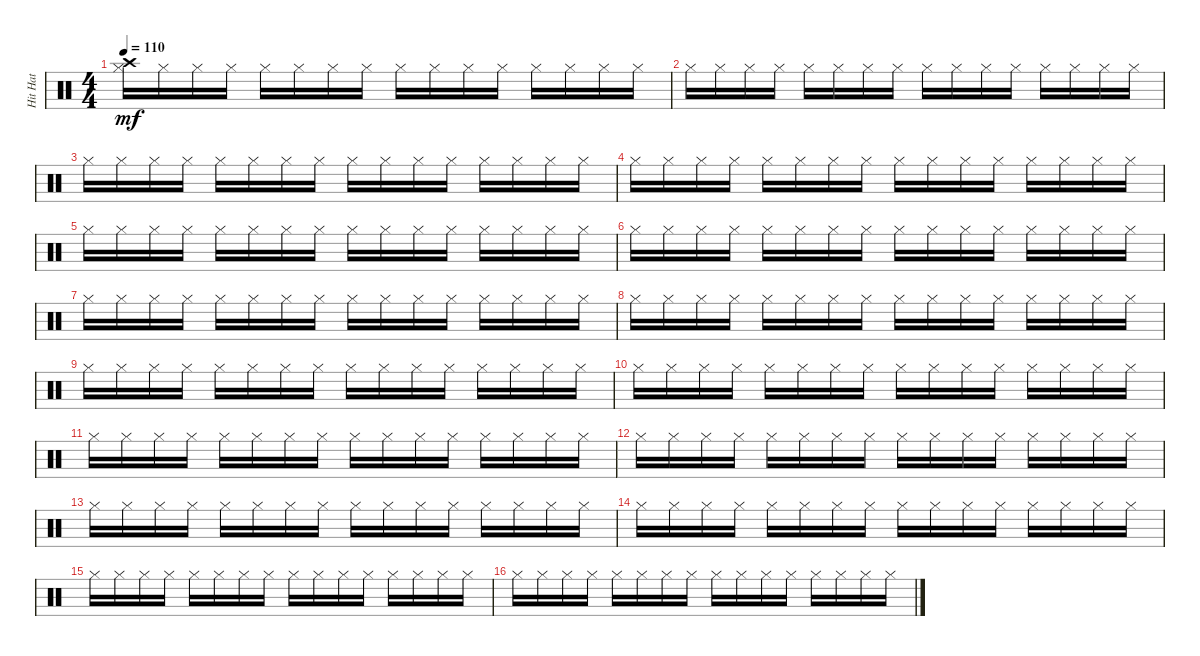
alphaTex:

\track ("Hit Hat" "Hit Hat") {instrument percussion}
\staff {score}
\articulation defaults
\ts (4 4)
\tempo 110
\clef neutral
\ks c
("Hi-Hat (closed)" "Crash high (hit)").16{dy mf} "Hi-Hat (closed)".16 "Hi-Hat (closed)".16 "Hi-Hat (closed)".16 "Hi-Hat (closed)".16 "Hi-Hat (closed)".16 "Hi-Hat (closed)".16 "Hi-Hat (closed)".16 "Hi-Hat (closed)".16 "Hi-Hat (closed)".16 "Hi-Hat (closed)".16 "Hi-Hat (closed)".16 "Hi-Hat (closed)".16 "Hi-Hat (closed)".16 "Hi-Hat (closed)".16 "Hi-Hat (closed)".16 |
"Hi-Hat (closed)".16 "Hi-Hat (closed)".16 "Hi-Hat (closed)".16 "Hi-Hat (closed)".16 "Hi-Hat (closed)".16 "Hi-Hat (closed)".16 "Hi-Hat (closed)".16 "Hi-Hat (closed)".16 "Hi-Hat (closed)".16 "Hi-Hat (closed)".16 "Hi-Hat (closed)".16 "Hi-Hat (closed)".16 "Hi-Hat (closed)".16 "Hi-Hat (closed)".16 "Hi-Hat (closed)".16 "Hi-Hat (closed)".16 |
"Hi-Hat (closed)".16 "Hi-Hat (closed)".16 "Hi-Hat (closed)".16 "Hi-Hat (closed)".16 "Hi-Hat (closed)".16 "Hi-Hat (closed)".16 "Hi-Hat (closed)".16 "Hi-Hat (closed)".16 "Hi-Hat (closed)".16 "Hi-Hat (closed)".16 "Hi-Hat (closed)".16 "Hi-Hat (closed)".16 "Hi-Hat (closed)".16 "Hi-Hat (closed)".16 "Hi-Hat (closed)".16 "Hi-Hat (closed)".16 |
"Hi-Hat (closed)".16 "Hi-Hat (closed)".16 "Hi-Hat (closed)".16 "Hi-Hat (closed)".16 "Hi-Hat (closed)".16 "Hi-Hat (closed)".16 "Hi-Hat (closed)".16 "Hi-Hat (closed)".16 "Hi-Hat (closed)".16 "Hi-Hat (closed)".16 "Hi-Hat (closed)".16 "Hi-Hat (closed)".16 "Hi-Hat (closed)".16 "Hi-Hat (closed)".16 "Hi-Hat (closed)".16 "Hi-Hat (closed)".16 |
"Hi-Hat (closed)".16 "Hi-Hat (closed)".16 "Hi-Hat (closed)".16 "Hi-Hat (closed)".16 "Hi-Hat (closed)".16 "Hi-Hat (closed)".16 "Hi-Hat (closed)".16 "Hi-Hat (closed)".16 "Hi-Hat (closed)".16 "Hi-Hat (closed)".16 "Hi-Hat (closed)".16 "Hi-Hat (closed)".16 "Hi-Hat (closed)".16 "Hi-Hat (closed)".16 "Hi-Hat (closed)".16 "Hi-Hat (closed)".16 |
"Hi-Hat (closed)".16 "Hi-Hat (closed)".16 "Hi-Hat (closed)".16 "Hi-Hat (closed)".16 "Hi-Hat (closed)".16 "Hi-Hat (closed)".16 "Hi-Hat (closed)".16 "Hi-Hat (closed)".16 "Hi-Hat (closed)".16 "Hi-Hat (closed)".16 "Hi-Hat (closed)".16 "Hi-Hat (closed)".16 "Hi-Hat (closed)".16 "Hi-Hat (closed)".16 "Hi-Hat (closed)".16 "Hi-Hat (closed)".16 |
"Hi-Hat (closed)".16 "Hi-Hat (closed)".16 "Hi-Hat (closed)".16 "Hi-Hat (closed)".16 "Hi-Hat (closed)".16 "Hi-Hat (closed)".16 "Hi-Hat (closed)".16 "Hi-Hat (closed)".16 "Hi-Hat (closed)".16 "Hi-Hat (closed)".16 "Hi-Hat (closed)".16 "Hi-Hat (closed)".16 "Hi-Hat (closed)".16 "Hi-Hat (closed)".16 "Hi-Hat (closed)".16 "Hi-Hat (closed)".16 |
"Hi-Hat (closed)".16 "Hi-Hat (closed)".16 "Hi-Hat (closed)".16 "Hi-Hat (closed)".16 "Hi-Hat (closed)".16 "Hi-Hat (closed)".16 "Hi-Hat (closed)".16 "Hi-Hat (closed)".16 "Hi-Hat (closed)".16 "Hi-Hat (closed)".16 "Hi-Hat (closed)".16 "Hi-Hat (closed)".16 "Hi-Hat (closed)".16 "Hi-Hat (closed)".16 "Hi-Hat (closed)".16 "Hi-Hat (closed)".16 |
"Hi-Hat (closed)".16 "Hi-Hat (closed)".16 "Hi-Hat (closed)".16 "Hi-Hat (closed)".16 "Hi-Hat (closed)".16 "Hi-Hat (closed)".16 "Hi-Hat (closed)".16 "Hi-Hat (closed)".16 "Hi-Hat (closed)".16 "Hi-Hat (closed)".16 "Hi-Hat (closed)".16 "Hi-Hat (closed)".16 "Hi-Hat (closed)".16 "Hi-Hat (closed)".16 "Hi-Hat (closed)".16 "Hi-Hat (closed)".16 |
"Hi-Hat (closed)".16 "Hi-Hat (closed)".16 "Hi-Hat (closed)".16 "Hi-Hat (closed)".16 "Hi-Hat (closed)".16 "Hi-Hat (closed)".16 "Hi-Hat (closed)".16 "Hi-Hat (closed)".16 "Hi-Hat (closed)".16 "Hi-Hat (closed)".16 "Hi-Hat (closed)".16 "Hi-Hat (closed)".16 "Hi-Hat (closed)".16 "Hi-Hat (closed)".16 "Hi-Hat (closed)".16 "Hi-Hat (closed)".16 |
"Hi-Hat (closed)".16 "Hi-Hat (closed)".16 "Hi-Hat (closed)".16 "Hi-Hat (closed)".16 "Hi-Hat (closed)".16 "Hi-Hat (closed)".16 "Hi-Hat (closed)".16 "Hi-Hat (closed)".16 "Hi-Hat (closed)".16 "Hi-Hat (closed)".16 "Hi-Hat (closed)".16 "Hi-Hat (closed)".16 "Hi-Hat (closed)".16 "Hi-Hat (closed)".16 "Hi-Hat (closed)".16 "Hi-Hat (closed)".16 |
"Hi-Hat (closed)".16 "Hi-Hat (closed)".16 "Hi-Hat (closed)".16 "Hi-Hat (closed)".16 "Hi-Hat (closed)".16 "Hi-Hat (closed)".16 "Hi-Hat (closed)".16 "Hi-Hat (closed)".16 "Hi-Hat (closed)".16 "Hi-Hat (closed)".16 "Hi-Hat (closed)".16 "Hi-Hat (closed)".16 "Hi-Hat (closed)".16 "Hi-Hat (closed)".16 "Hi-Hat (closed)".16 "Hi-Hat (closed)".16 |
"Hi-Hat (closed)".16 "Hi-Hat (closed)".16 "Hi-Hat (closed)".16 "Hi-Hat (closed)".16 "Hi-Hat (closed)".16 "Hi-Hat (closed)".16 "Hi-Hat (closed)".16 "Hi-Hat (closed)".16 "Hi-Hat (closed)".16 "Hi-Hat (closed)".16 "Hi-Hat (closed)".16 "Hi-Hat (closed)".16 "Hi-Hat (closed)".16 "Hi-Hat (closed)".16 "Hi-Hat (closed)".16 "Hi-Hat (closed)".16 |
"Hi-Hat (closed)".16 "Hi-Hat (closed)".16 "Hi-Hat (closed)".16 "Hi-Hat (closed)".16 "Hi-Hat (closed)".16 "Hi-Hat (closed)".16 "Hi-Hat (closed)".16 "Hi-Hat (closed)".16 "Hi-Hat (closed)".16 "Hi-Hat (closed)".16 "Hi-Hat (closed)".16 "Hi-Hat (closed)".16 "Hi-Hat (closed)".16 "Hi-Hat (closed)".16 "Hi-Hat (closed)".16 "Hi-Hat (closed)".16 |
"Hi-Hat (closed)".16 "Hi-Hat (closed)".16 "Hi-Hat (closed)".16 "Hi-Hat (closed)".16 "Hi-Hat (closed)".16 "Hi-Hat (closed)".16 "Hi-Hat (closed)".16 "Hi-Hat (closed)".16 "Hi-Hat (closed)".16 "Hi-Hat (closed)".16 "Hi-Hat (closed)".16 "Hi-Hat (closed)".16 "Hi-Hat (closed)".16 "Hi-Hat (closed)".16 "Hi-Hat (closed)".16 "Hi-Hat (closed)".16 |
"Hi-Hat (closed)".16 "Hi-Hat (closed)".16 "Hi-Hat (closed)".16 "Hi-Hat (closed)".16 "Hi-Hat (closed)".16 "Hi-Hat (closed)".16 "Hi-Hat (closed)".16 "Hi-Hat (closed)".16 "Hi-Hat (closed)".16 "Hi-Hat (closed)".16 "Hi-Hat (closed)".16 "Hi-Hat (closed)".16 "Hi-Hat (closed)".16 "Hi-Hat (closed)".16 "Hi-Hat (closed)".16 "Hi-Hat (closed)".16
